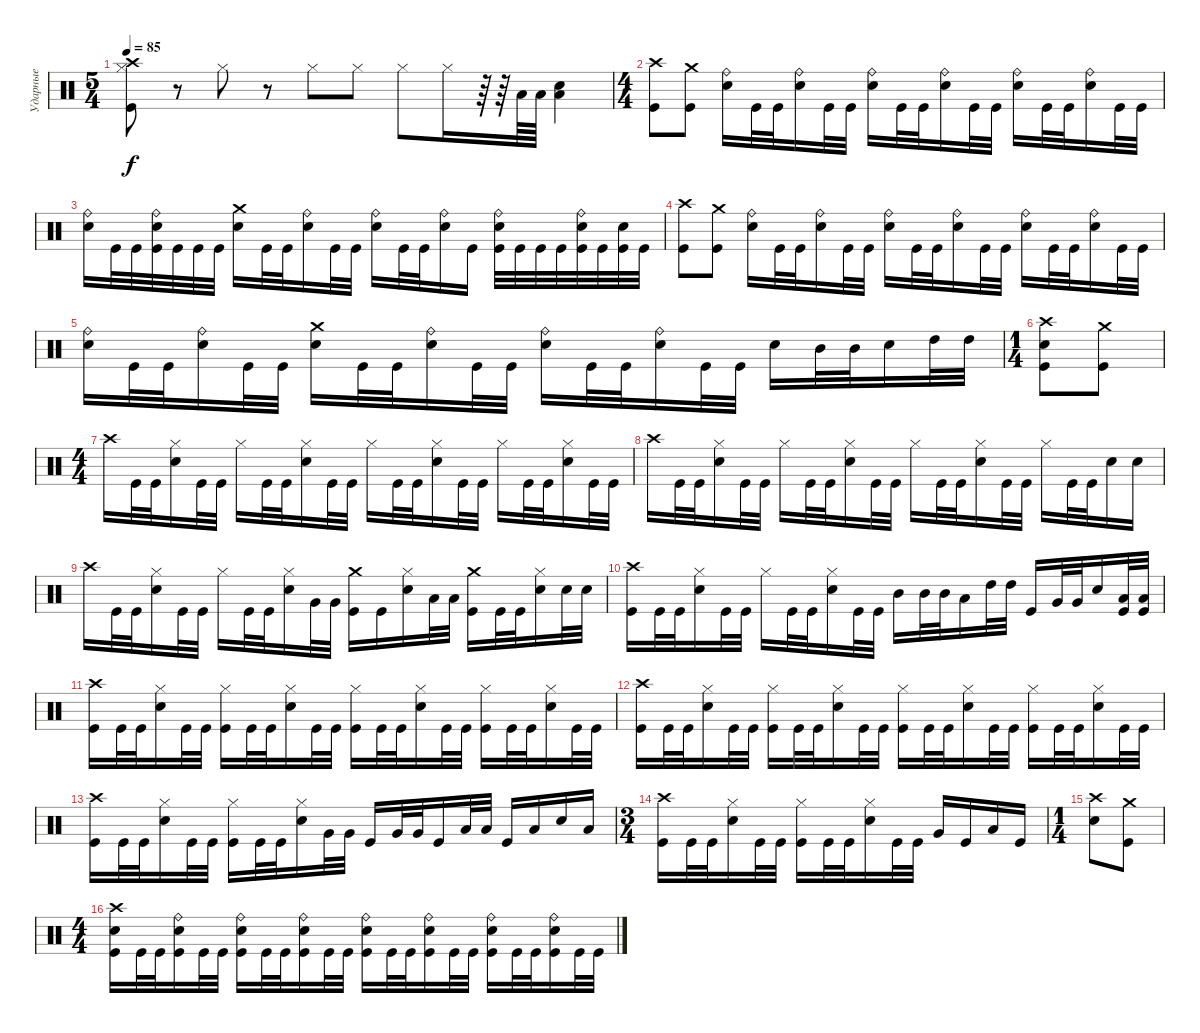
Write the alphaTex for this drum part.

\track ("Ударные" "Ударные") {instrument percussion}
\staff {score}
\articulation defaults
\ts (5 4)
\tempo 85
\clef neutral
\ks c
("Crash high (hit)" "Hi-Hat (closed)" "Kick (hit)").8{dy f} r.8 "Hi-Hat (closed)".8 r.8 "Hi-Hat (closed)".8 "Hi-Hat (closed)".8 "Hi-Hat (closed)".8 "Hi-Hat (closed)".16 r.64 r.64 "Low Tom (hit)".64 "Low Tom (hit)".64 ("Electric Snare (hit)" "Low Tom (hit)").4 |
\ts (4 4)
("Crash high (hit)" "Kick (hit)").8 ("Crash medium (hit)" "Kick (hit)").8 ("Ride (bell)" "Electric Snare (hit)").16 "Kick (hit)".32 "Kick (hit)".32 ("Ride (bell)" "Electric Snare (hit)").16 "Kick (hit)".32 "Kick (hit)".32 ("Ride (bell)" "Electric Snare (hit)").16 "Kick (hit)".32 "Kick (hit)".32 ("Ride (bell)" "Electric Snare (hit)").16 "Kick (hit)".32 "Kick (hit)".32 ("Ride (bell)" "Electric Snare (hit)").16 "Kick (hit)".32 "Kick (hit)".32 ("Ride (bell)" "Electric Snare (hit)").16 "Kick (hit)".32 "Kick (hit)".32 |
("Ride (bell)" "Electric Snare (hit)").16 "Kick (hit)".32 "Kick (hit)".32 ("Ride (bell)" "Electric Snare (hit)" "Kick (hit)").32 "Kick (hit)".32 "Kick (hit)".32 "Kick (hit)".32 ("Crash medium (hit)" "Electric Snare (hit)").16 "Kick (hit)".32 "Kick (hit)".32 ("Ride (bell)" "Electric Snare (hit)").16 "Kick (hit)".32 "Kick (hit)".32 ("Ride (bell)" "Electric Snare (hit)").16 "Kick (hit)".32 "Kick (hit)".32 ("Ride (bell)" "Electric Snare (hit)").16 "Kick (hit)".16 ("Ride (bell)" "Electric Snare (hit)" "Kick (hit)").32 "Kick (hit)".32 "Kick (hit)".32 "Kick (hit)".32 ("Ride (bell)" "Electric Snare (hit)" "Kick (hit)").32 "Kick (hit)".32 ("Electric Snare (hit)" "Kick (hit)").32 "Kick (hit)".32 |
("Crash high (hit)" "Kick (hit)").8 ("Crash medium (hit)" "Kick (hit)").8 ("Ride (bell)" "Electric Snare (hit)").16 "Kick (hit)".32 "Kick (hit)".32 ("Ride (bell)" "Electric Snare (hit)").16 "Kick (hit)".32 "Kick (hit)".32 ("Ride (bell)" "Electric Snare (hit)").16 "Kick (hit)".32 "Kick (hit)".32 ("Ride (bell)" "Electric Snare (hit)").16 "Kick (hit)".32 "Kick (hit)".32 ("Ride (bell)" "Electric Snare (hit)").16 "Kick (hit)".32 "Kick (hit)".32 ("Ride (bell)" "Electric Snare (hit)").16 "Kick (hit)".32 "Kick (hit)".32 |
("Ride (bell)" "Electric Snare (hit)").16 "Kick (hit)".32 "Kick (hit)".32 ("Ride (bell)" "Electric Snare (hit)").16 "Kick (hit)".32 "Kick (hit)".32 ("Crash medium (hit)" "Electric Snare (hit)").16 "Kick (hit)".32 "Kick (hit)".32 ("Ride (bell)" "Electric Snare (hit)").16 "Kick (hit)".32 "Kick (hit)".32 ("Ride (bell)" "Electric Snare (hit)").16 "Kick (hit)".32 "Kick (hit)".32 ("Ride (bell)" "Electric Snare (hit)").16 "Kick (hit)".32 "Kick (hit)".32 "Electric Snare (hit)".16 "Mid Tom (hit)".32 "Mid Tom (hit)".32 "Electric Snare (hit)".16 "High Tom (hit)".32 "High Tom (hit)".32 |
\ts (1 4)
("Crash high (hit)" "Electric Snare (hit)" "Kick (hit)").8 ("Crash medium (hit)" "Kick (hit)").8 |
\ts (4 4)
"Crash high (hit)".16 "Kick (hit)".32 "Kick (hit)".32 ("Hi-Hat (closed)" "Electric Snare (hit)").16 "Kick (hit)".32 "Kick (hit)".32 "Hi-Hat (closed)".16 "Kick (hit)".32 "Kick (hit)".32 ("Hi-Hat (closed)" "Electric Snare (hit)").16 "Kick (hit)".32 "Kick (hit)".32 "Hi-Hat (closed)".16 "Kick (hit)".32 "Kick (hit)".32 ("Hi-Hat (closed)" "Electric Snare (hit)").16 "Kick (hit)".32 "Kick (hit)".32 "Hi-Hat (closed)".16 "Kick (hit)".32 "Kick (hit)".32 ("Hi-Hat (closed)" "Electric Snare (hit)").16 "Kick (hit)".32 "Kick (hit)".32 |
"Crash high (hit)".16 "Kick (hit)".32 "Kick (hit)".32 ("Hi-Hat (closed)" "Electric Snare (hit)").16 "Kick (hit)".32 "Kick (hit)".32 "Hi-Hat (closed)".16 "Kick (hit)".32 "Kick (hit)".32 ("Hi-Hat (closed)" "Electric Snare (hit)").16 "Kick (hit)".32 "Kick (hit)".32 "Hi-Hat (closed)".16 "Kick (hit)".32 "Kick (hit)".32 ("Hi-Hat (closed)" "Electric Snare (hit)").16 "Kick (hit)".32 "Kick (hit)".32 "Hi-Hat (closed)".16 "Kick (hit)".32 "Kick (hit)".32 "Electric Snare (hit)".16 "Electric Snare (hit)".16 |
"Crash high (hit)".16 "Kick (hit)".32 "Kick (hit)".32 ("Hi-Hat (closed)" "Electric Snare (hit)").16 "Kick (hit)".32 "Kick (hit)".32 "Hi-Hat (closed)".16 "Kick (hit)".32 "Kick (hit)".32 ("Hi-Hat (closed)" "Electric Snare (hit)").16 "Very Low Tom (hit)".32 "Very Low Tom (hit)".32 ("Crash medium (hit)" "Kick (hit)").16 "Kick (hit)".16 ("Hi-Hat (closed)" "Electric Snare (hit)").16 "Low Tom (hit)".32 "Low Tom (hit)".32 ("Crash medium (hit)" "Kick (hit)").16 "Kick (hit)".32 "Kick (hit)".32 ("Hi-Hat (closed)" "Electric Snare (hit)").16 "Electric Snare (hit)".32 "Electric Snare (hit)".32 |
("Crash high (hit)" "Kick (hit)").16 "Kick (hit)".32 "Kick (hit)".32 ("Hi-Hat (closed)" "Electric Snare (hit)").16 "Kick (hit)".32 "Kick (hit)".32 "Hi-Hat (closed)".16 "Kick (hit)".32 "Kick (hit)".32 ("Hi-Hat (closed)" "Electric Snare (hit)").16 "Kick (hit)".32 "Kick (hit)".32 "Mid Tom (hit)".16 "Mid Tom (hit)".32 "Mid Tom (hit)".32 "Low Tom (hit)".16 "High Tom (hit)".32 "High Tom (hit)".32 "Kick (hit)".16 "Very Low Tom (hit)".32 "Very Low Tom (hit)".32 "Electric Snare (hit)".16 ("Low Tom (hit)" "Kick (hit)").32 ("Low Tom (hit)" "Kick (hit)").32 |
("Crash high (hit)" "Kick (hit)").16 "Kick (hit)".32 "Kick (hit)".32 ("Hi-Hat (closed)" "Electric Snare (hit)").16 "Kick (hit)".32 "Kick (hit)".32 ("Hi-Hat (closed)" "Kick (hit)").16 "Kick (hit)".32 "Kick (hit)".32 ("Hi-Hat (closed)" "Electric Snare (hit)").16 "Kick (hit)".32 "Kick (hit)".32 ("Hi-Hat (closed)" "Kick (hit)").16 "Kick (hit)".32 "Kick (hit)".32 ("Hi-Hat (closed)" "Electric Snare (hit)").16 "Kick (hit)".32 "Kick (hit)".32 ("Hi-Hat (closed)" "Kick (hit)").16 "Kick (hit)".32 "Kick (hit)".32 ("Hi-Hat (closed)" "Electric Snare (hit)").16 "Kick (hit)".32 "Kick (hit)".32 |
("Crash high (hit)" "Kick (hit)").16 "Kick (hit)".32 "Kick (hit)".32 ("Hi-Hat (closed)" "Electric Snare (hit)").16 "Kick (hit)".32 "Kick (hit)".32 ("Hi-Hat (closed)" "Kick (hit)").16 "Kick (hit)".32 "Kick (hit)".32 ("Hi-Hat (closed)" "Electric Snare (hit)").16 "Kick (hit)".32 "Kick (hit)".32 ("Hi-Hat (closed)" "Kick (hit)").16 "Kick (hit)".32 "Kick (hit)".32 ("Hi-Hat (closed)" "Electric Snare (hit)").16 "Kick (hit)".32 "Kick (hit)".32 ("Hi-Hat (closed)" "Kick (hit)").16 "Kick (hit)".32 "Kick (hit)".32 ("Hi-Hat (closed)" "Electric Snare (hit)").16 "Kick (hit)".32 "Kick (hit)".32 |
("Crash high (hit)" "Kick (hit)").16 "Kick (hit)".32 "Kick (hit)".32 ("Hi-Hat (closed)" "Electric Snare (hit)").16 "Kick (hit)".32 "Kick (hit)".32 ("Hi-Hat (closed)" "Kick (hit)").16 "Kick (hit)".32 "Kick (hit)".32 ("Hi-Hat (closed)" "Electric Snare (hit)").16 "Very Low Tom (hit)".32 "Very Low Tom (hit)".32 "Kick (hit)".16 "Very Low Tom (hit)".32 "Very Low Tom (hit)".32 "Kick (hit)".16 "Low Tom (hit)".32 "Low Tom (hit)".32 "Kick (hit)".16 "Low Tom (hit)".16 "Electric Snare (hit)".16 "Low Tom (hit)".16 |
\ts (3 4)
("Crash high (hit)" "Kick (hit)").16 "Kick (hit)".32 "Kick (hit)".32 ("Hi-Hat (closed)" "Electric Snare (hit)").16 "Kick (hit)".32 "Kick (hit)".32 ("Hi-Hat (closed)" "Kick (hit)").16 "Kick (hit)".32 "Kick (hit)".32 ("Hi-Hat (closed)" "Electric Snare (hit)").16 "Kick (hit)".32 "Kick (hit)".32 "Very Low Tom (hit)".16 "Kick (hit)".16 "Low Tom (hit)".16 "Kick (hit)".16 |
\ts (1 4)
("Crash high (hit)" "Electric Snare (hit)").8 ("Crash medium (hit)" "Kick (hit)").8 |
\ts (4 4)
("Crash high (hit)" "Electric Snare (hit)" "Kick (hit)").16 "Kick (hit)".32 "Kick (hit)".32 ("Ride (bell)" "Electric Snare (hit)" "Kick (hit)").16 "Kick (hit)".32 "Kick (hit)".32 ("Ride (bell)" "Electric Snare (hit)" "Kick (hit)").16 "Kick (hit)".32 "Kick (hit)".32 ("Ride (bell)" "Electric Snare (hit)" "Kick (hit)").16 "Kick (hit)".32 "Kick (hit)".32 ("Ride (bell)" "Electric Snare (hit)" "Kick (hit)").16 "Kick (hit)".32 "Kick (hit)".32 ("Ride (bell)" "Electric Snare (hit)" "Kick (hit)").16 "Kick (hit)".32 "Kick (hit)".32 ("Ride (bell)" "Electric Snare (hit)" "Kick (hit)").16 "Kick (hit)".32 "Kick (hit)".32 ("Ride (bell)" "Electric Snare (hit)" "Kick (hit)").16 "Kick (hit)".32 "Kick (hit)".32
